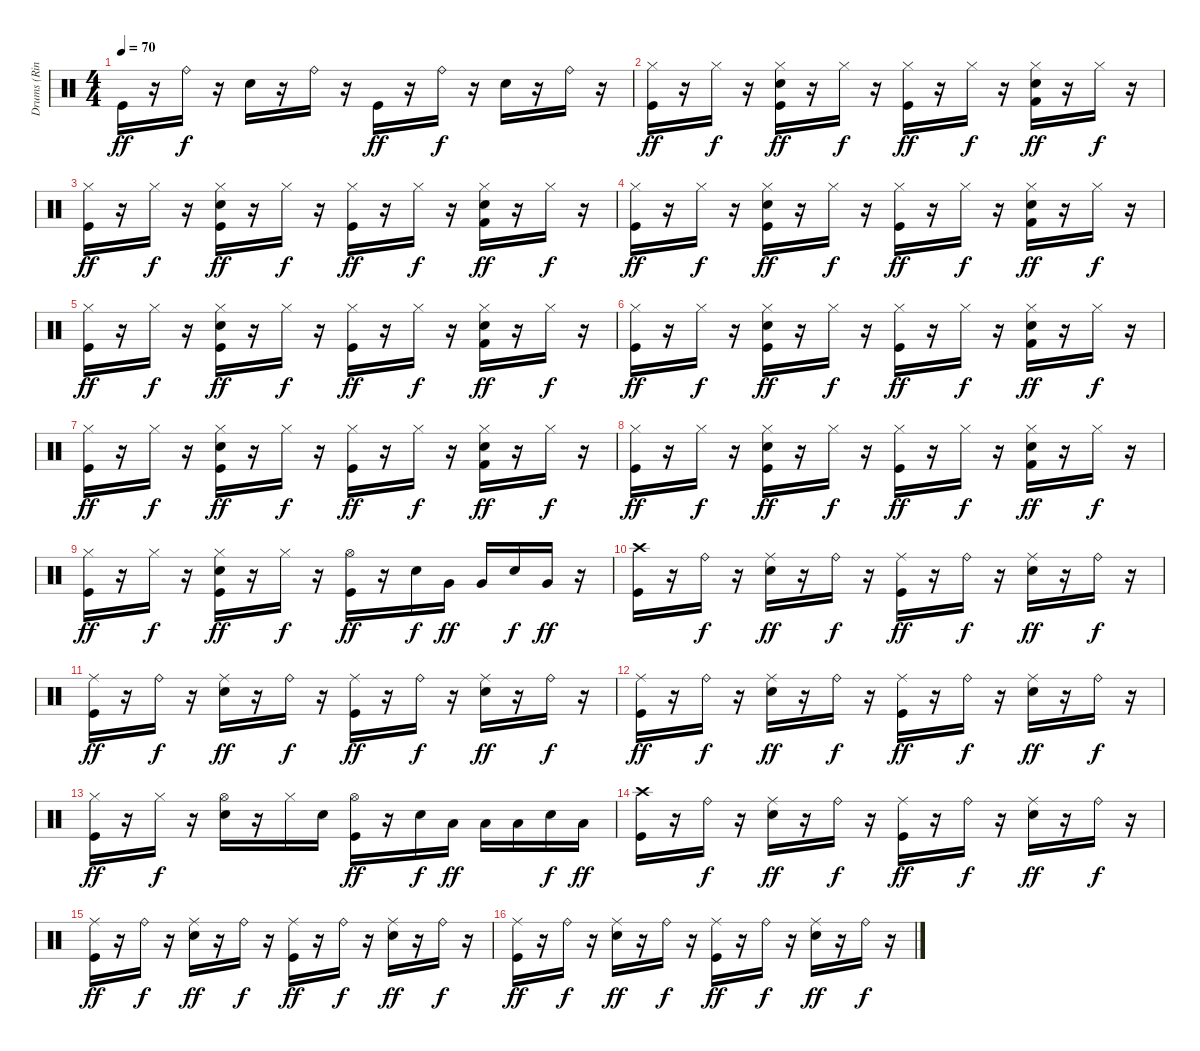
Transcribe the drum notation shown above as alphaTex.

\track ("Drums (Ringo)" "Drums (Rin") {instrument percussion}
\staff {score}
\articulation defaults
\ts (4 4)
\tempo 70
\clef neutral
\ks c "Kick (hit)".16{dy ff}
r.16 "Ride (bell)".16{dy f} r.16 "Snare (hit) 2".16 r.16 "Ride (bell)".16 r.16 "Kick (hit)".16{dy ff} r.16 "Ride (bell)".16{dy f} r.16 "Snare (hit) 2".16 r.16 "Ride (bell)".16 r.16 |
("Hi-Hat (closed)" "Kick (hit)").16{dy ff} r.16 "Hi-Hat (closed)".16{dy f} r.16 ("Hi-Hat (closed)" "Kick (hit)" "Snare (hit) 2").16{dy ff} r.16 "Hi-Hat (closed)".16{dy f} r.16 ("Hi-Hat (closed)" "Kick (hit)").16{dy ff} r.16 "Hi-Hat (closed)".16{dy f} r.16 ("Hi-Hat (closed)" "Kick (hit) 2" "Snare (hit) 2").16{dy ff} r.16 "Hi-Hat (closed)".16{dy f} r.16 |
("Hi-Hat (closed)" "Kick (hit)").16{dy ff} r.16 "Hi-Hat (closed)".16{dy f} r.16 ("Hi-Hat (closed)" "Kick (hit)" "Snare (hit) 2").16{dy ff} r.16 "Hi-Hat (closed)".16{dy f} r.16 ("Hi-Hat (closed)" "Kick (hit)").16{dy ff} r.16 "Hi-Hat (closed)".16{dy f} r.16 ("Hi-Hat (closed)" "Kick (hit) 2" "Snare (hit) 2").16{dy ff} r.16 "Hi-Hat (closed)".16{dy f} r.16 |
("Hi-Hat (closed)" "Kick (hit)").16{dy ff} r.16 "Hi-Hat (closed)".16{dy f} r.16 ("Hi-Hat (closed)" "Kick (hit)" "Snare (hit) 2").16{dy ff} r.16 "Hi-Hat (closed)".16{dy f} r.16 ("Hi-Hat (closed)" "Kick (hit)").16{dy ff} r.16 "Hi-Hat (closed)".16{dy f} r.16 ("Hi-Hat (closed)" "Kick (hit) 2" "Snare (hit) 2").16{dy ff} r.16 "Hi-Hat (closed)".16{dy f} r.16 |
("Hi-Hat (closed)" "Kick (hit)").16{dy ff} r.16 "Hi-Hat (closed)".16{dy f} r.16 ("Hi-Hat (closed)" "Kick (hit)" "Snare (hit) 2").16{dy ff} r.16 "Hi-Hat (closed)".16{dy f} r.16 ("Hi-Hat (closed)" "Kick (hit)").16{dy ff} r.16 "Hi-Hat (closed)".16{dy f} r.16 ("Hi-Hat (closed)" "Kick (hit) 2" "Snare (hit) 2").16{dy ff} r.16 "Hi-Hat (closed)".16{dy f} r.16 |
("Hi-Hat (closed)" "Kick (hit)").16{dy ff} r.16 "Hi-Hat (closed)".16{dy f} r.16 ("Hi-Hat (closed)" "Kick (hit)" "Snare (hit) 2").16{dy ff} r.16 "Hi-Hat (closed)".16{dy f} r.16 ("Hi-Hat (closed)" "Kick (hit)").16{dy ff} r.16 "Hi-Hat (closed)".16{dy f} r.16 ("Hi-Hat (closed)" "Kick (hit) 2" "Snare (hit) 2").16{dy ff} r.16 "Hi-Hat (closed)".16{dy f} r.16 |
("Hi-Hat (closed)" "Kick (hit)").16{dy ff} r.16 "Hi-Hat (closed)".16{dy f} r.16 ("Hi-Hat (closed)" "Kick (hit)" "Snare (hit) 2").16{dy ff} r.16 "Hi-Hat (closed)".16{dy f} r.16 ("Hi-Hat (closed)" "Kick (hit)").16{dy ff} r.16 "Hi-Hat (closed)".16{dy f} r.16 ("Hi-Hat (closed)" "Kick (hit) 2" "Snare (hit) 2").16{dy ff} r.16 "Hi-Hat (closed)".16{dy f} r.16 |
("Hi-Hat (closed)" "Kick (hit)").16{dy ff} r.16 "Hi-Hat (closed)".16{dy f} r.16 ("Hi-Hat (closed)" "Kick (hit)" "Snare (hit) 2").16{dy ff} r.16 "Hi-Hat (closed)".16{dy f} r.16 ("Hi-Hat (closed)" "Kick (hit)").16{dy ff} r.16 "Hi-Hat (closed)".16{dy f} r.16 ("Hi-Hat (closed)" "Kick (hit) 2" "Snare (hit) 2").16{dy ff} r.16 "Hi-Hat (closed)".16{dy f} r.16 |
("Hi-Hat (closed)" "Kick (hit)").16{dy ff} r.16 "Hi-Hat (closed)".16{dy f} r.16 ("Hi-Hat (closed)" "Kick (hit)" "Snare (hit) 2").16{dy ff} r.16 "Hi-Hat (closed)".16{dy f} r.16 ("Hi-Hat (open)" "Kick (hit)").16{dy ff} r.16 "Snare (hit) 2".16{dy f} "Very Low Tom (hit)".16{dy ff} "Very Low Tom (hit)".16 "Snare (hit) 2".16{dy f} "Very Low Tom (hit)".16{dy ff} r.16 |
("Crash high (hit)" "Kick (hit)").16 r.16 "Ride (bell)".16{dy f} r.16 ("Ride (middle)" "Snare (hit) 2").16{dy ff} r.16 "Ride (bell)".16{dy f} r.16 ("Ride (middle)" "Kick (hit)").16{dy ff} r.16 "Ride (bell)".16{dy f} r.16 ("Ride (middle)" "Snare (hit) 2").16{dy ff} r.16 "Ride (bell)".16{dy f} r.16 |
("Ride (middle)" "Kick (hit)").16{dy ff} r.16 "Ride (bell)".16{dy f} r.16 ("Ride (middle)" "Snare (hit) 2").16{dy ff} r.16 "Ride (bell)".16{dy f} r.16 ("Ride (middle)" "Kick (hit)").16{dy ff} r.16 "Ride (bell)".16{dy f} r.16 ("Ride (middle)" "Snare (hit) 2").16{dy ff} r.16 "Ride (bell)".16{dy f} r.16 |
("Ride (middle)" "Kick (hit)").16{dy ff} r.16 "Ride (bell)".16{dy f} r.16 ("Ride (middle)" "Snare (hit) 2").16{dy ff} r.16 "Ride (bell)".16{dy f} r.16 ("Ride (middle)" "Kick (hit)").16{dy ff} r.16 "Ride (bell)".16{dy f} r.16 ("Ride (middle)" "Snare (hit) 2").16{dy ff} r.16 "Ride (bell)".16{dy f} r.16 |
("Hi-Hat (closed)" "Kick (hit)").16{dy ff} r.16 "Hi-Hat (closed)".16{dy f} r.16 ("Hi-Hat (open)" "Snare (hit) 2").16 r.16 "Hi-Hat (closed)".16 "Snare (hit) 2".16 ("Hi-Hat (open)" "Kick (hit)").16{dy ff} r.16 "Snare (hit) 2".16{dy f} "Low Tom (hit)".16{dy ff} "Low Tom (hit)".16 "Low Tom (hit)".16 "Snare (hit) 2".16{dy f} "Low Tom (hit)".16{dy ff} |
("Crash high (hit)" "Kick (hit)").16 r.16 "Ride (bell)".16{dy f} r.16 ("Ride (middle)" "Snare (hit) 2").16{dy ff} r.16 "Ride (bell)".16{dy f} r.16 ("Ride (middle)" "Kick (hit)").16{dy ff} r.16 "Ride (bell)".16{dy f} r.16 ("Ride (middle)" "Snare (hit) 2").16{dy ff} r.16 "Ride (bell)".16{dy f} r.16 |
("Ride (middle)" "Kick (hit)").16{dy ff} r.16 "Ride (bell)".16{dy f} r.16 ("Ride (middle)" "Snare (hit) 2").16{dy ff} r.16 "Ride (bell)".16{dy f} r.16 ("Ride (middle)" "Kick (hit)").16{dy ff} r.16 "Ride (bell)".16{dy f} r.16 ("Ride (middle)" "Snare (hit) 2").16{dy ff} r.16 "Ride (bell)".16{dy f} r.16 |
("Ride (middle)" "Kick (hit)").16{dy ff} r.16 "Ride (bell)".16{dy f} r.16 ("Ride (middle)" "Snare (hit) 2").16{dy ff} r.16 "Ride (bell)".16{dy f} r.16 ("Ride (middle)" "Kick (hit)").16{dy ff} r.16 "Ride (bell)".16{dy f} r.16 ("Ride (middle)" "Snare (hit) 2").16{dy ff} r.16 "Ride (bell)".16{dy f} r.16
